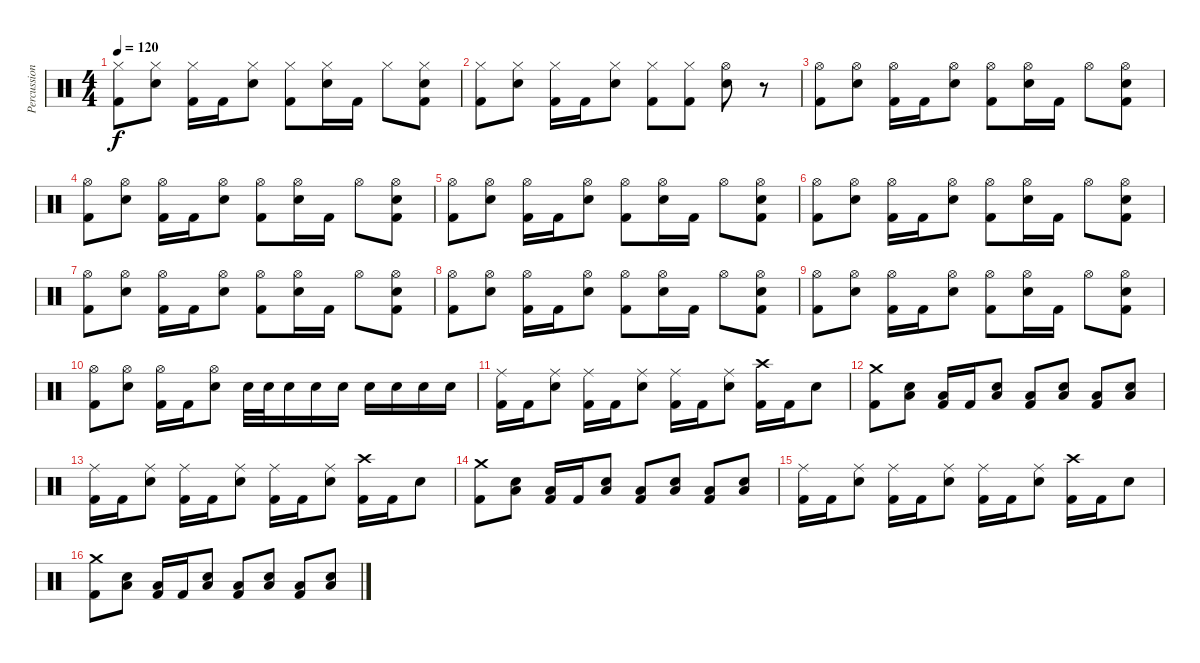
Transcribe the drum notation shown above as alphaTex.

\track ("Percussion" "Percussion") {instrument percussion}
\staff {score}
\articulation defaults
\ts (4 4)
\tempo 120
\clef neutral
\ks c
("Hi-Hat (closed)" "Kick (hit) 2").8{dy f} ("Hi-Hat (closed)" "Electric Snare (hit)").8 ("Hi-Hat (closed)" "Kick (hit) 2").16 "Kick (hit) 2".16 ("Hi-Hat (closed)" "Electric Snare (hit)").8 ("Hi-Hat (closed)" "Kick (hit) 2").8 ("Hi-Hat (closed)" "Electric Snare (hit)").16 "Kick (hit) 2".16 "Hi-Hat (closed)".8 ("Hi-Hat (closed)" "Electric Snare (hit)" "Kick (hit) 2").8 |
("Hi-Hat (closed)" "Kick (hit) 2").8 ("Hi-Hat (closed)" "Electric Snare (hit)").8 ("Hi-Hat (closed)" "Kick (hit) 2").16 "Kick (hit) 2".16 ("Hi-Hat (closed)" "Electric Snare (hit)").8 ("Hi-Hat (closed)" "Kick (hit) 2").8 ("Hi-Hat (closed)" "Kick (hit) 2").8 ("Hi-Hat (open)" "Electric Snare (hit)").8 r.8 |
("Hi-Hat (open)" "Kick (hit) 2").8 ("Hi-Hat (open)" "Electric Snare (hit)").8 ("Hi-Hat (open)" "Kick (hit) 2").16 "Kick (hit) 2".16 ("Hi-Hat (open)" "Electric Snare (hit)").8 ("Hi-Hat (open)" "Kick (hit) 2").8 ("Hi-Hat (open)" "Electric Snare (hit)").16 "Kick (hit) 2".16 "Hi-Hat (open)".8 ("Hi-Hat (open)" "Electric Snare (hit)" "Kick (hit) 2").8 |
("Hi-Hat (open)" "Kick (hit) 2").8 ("Hi-Hat (open)" "Electric Snare (hit)").8 ("Hi-Hat (open)" "Kick (hit) 2").16 "Kick (hit) 2".16 ("Hi-Hat (open)" "Electric Snare (hit)").8 ("Hi-Hat (open)" "Kick (hit) 2").8 ("Hi-Hat (open)" "Electric Snare (hit)").16 "Kick (hit) 2".16 "Hi-Hat (open)".8 ("Hi-Hat (open)" "Electric Snare (hit)" "Kick (hit) 2").8 |
("Hi-Hat (open)" "Kick (hit) 2").8 ("Hi-Hat (open)" "Electric Snare (hit)").8 ("Hi-Hat (open)" "Kick (hit) 2").16 "Kick (hit) 2".16 ("Hi-Hat (open)" "Electric Snare (hit)").8 ("Hi-Hat (open)" "Kick (hit) 2").8 ("Hi-Hat (open)" "Electric Snare (hit)").16 "Kick (hit) 2".16 "Hi-Hat (open)".8 ("Hi-Hat (open)" "Electric Snare (hit)" "Kick (hit) 2").8 |
("Hi-Hat (open)" "Kick (hit) 2").8 ("Hi-Hat (open)" "Electric Snare (hit)").8 ("Hi-Hat (open)" "Kick (hit) 2").16 "Kick (hit) 2".16 ("Hi-Hat (open)" "Electric Snare (hit)").8 ("Hi-Hat (open)" "Kick (hit) 2").8 ("Hi-Hat (open)" "Electric Snare (hit)").16 "Kick (hit) 2".16 "Hi-Hat (open)".8 ("Hi-Hat (open)" "Electric Snare (hit)" "Kick (hit) 2").8 |
("Hi-Hat (open)" "Kick (hit) 2").8 ("Hi-Hat (open)" "Electric Snare (hit)").8 ("Hi-Hat (open)" "Kick (hit) 2").16 "Kick (hit) 2".16 ("Hi-Hat (open)" "Electric Snare (hit)").8 ("Hi-Hat (open)" "Kick (hit) 2").8 ("Hi-Hat (open)" "Electric Snare (hit)").16 "Kick (hit) 2".16 "Hi-Hat (open)".8 ("Hi-Hat (open)" "Electric Snare (hit)" "Kick (hit) 2").8 |
("Hi-Hat (open)" "Kick (hit) 2").8 ("Hi-Hat (open)" "Electric Snare (hit)").8 ("Hi-Hat (open)" "Kick (hit) 2").16 "Kick (hit) 2".16 ("Hi-Hat (open)" "Electric Snare (hit)").8 ("Hi-Hat (open)" "Kick (hit) 2").8 ("Hi-Hat (open)" "Electric Snare (hit)").16 "Kick (hit) 2".16 "Hi-Hat (open)".8 ("Hi-Hat (open)" "Electric Snare (hit)" "Kick (hit) 2").8 |
("Hi-Hat (open)" "Kick (hit) 2").8 ("Hi-Hat (open)" "Electric Snare (hit)").8 ("Hi-Hat (open)" "Kick (hit) 2").16 "Kick (hit) 2".16 ("Hi-Hat (open)" "Electric Snare (hit)").8 ("Hi-Hat (open)" "Kick (hit) 2").8 ("Hi-Hat (open)" "Electric Snare (hit)").16 "Kick (hit) 2".16 "Hi-Hat (open)".8 ("Hi-Hat (open)" "Electric Snare (hit)" "Kick (hit) 2").8 |
("Hi-Hat (open)" "Kick (hit) 2").8 ("Hi-Hat (open)" "Electric Snare (hit)").8 ("Hi-Hat (open)" "Kick (hit) 2").16 "Kick (hit) 2".16 ("Hi-Hat (open)" "Electric Snare (hit)").8 "Electric Snare (hit)".32 "Electric Snare (hit)".32 "Electric Snare (hit)".16 "Electric Snare (hit)".16 "Electric Snare (hit)".16 "Electric Snare (hit)".16 "Electric Snare (hit)".16 "Electric Snare (hit)".16 "Electric Snare (hit)".16 |
("Ride (middle)" "Kick (hit) 2").16 "Kick (hit) 2".16 ("Ride (middle)" "Electric Snare (hit)").8 ("Ride (middle)" "Kick (hit) 2").16 "Kick (hit) 2".16 ("Ride (middle)" "Electric Snare (hit)").8 ("Ride (middle)" "Kick (hit) 2").16 "Kick (hit) 2".16 ("Ride (middle)" "Electric Snare (hit)").8 ("Crash high (hit)" "Kick (hit) 2").16 "Kick (hit) 2".16 "Electric Snare (hit)".8 |
("Crash medium (hit)" "Kick (hit) 2").8 ("Low Tom (hit)" "Electric Snare (hit)").8 ("Low Tom (hit)" "Kick (hit) 2").16 "Kick (hit) 2".16 ("Low Tom (hit)" "Electric Snare (hit)").8 ("Low Tom (hit)" "Kick (hit) 2").8 ("Low Tom (hit)" "Electric Snare (hit)").8 ("Low Tom (hit)" "Kick (hit) 2").8 ("Low Tom (hit)" "Electric Snare (hit)").8 |
("Ride (middle)" "Kick (hit) 2").16 "Kick (hit) 2".16 ("Ride (middle)" "Electric Snare (hit)").8 ("Ride (middle)" "Kick (hit) 2").16 "Kick (hit) 2".16 ("Ride (middle)" "Electric Snare (hit)").8 ("Ride (middle)" "Kick (hit) 2").16 "Kick (hit) 2".16 ("Ride (middle)" "Electric Snare (hit)").8 ("Crash high (hit)" "Kick (hit) 2").16 "Kick (hit) 2".16 "Electric Snare (hit)".8 |
("Crash medium (hit)" "Kick (hit) 2").8 ("Low Tom (hit)" "Electric Snare (hit)").8 ("Low Tom (hit)" "Kick (hit) 2").16 "Kick (hit) 2".16 ("Low Tom (hit)" "Electric Snare (hit)").8 ("Low Tom (hit)" "Kick (hit) 2").8 ("Low Tom (hit)" "Electric Snare (hit)").8 ("Low Tom (hit)" "Kick (hit) 2").8 ("Low Tom (hit)" "Electric Snare (hit)").8 |
("Ride (middle)" "Kick (hit) 2").16 "Kick (hit) 2".16 ("Ride (middle)" "Electric Snare (hit)").8 ("Ride (middle)" "Kick (hit) 2").16 "Kick (hit) 2".16 ("Ride (middle)" "Electric Snare (hit)").8 ("Ride (middle)" "Kick (hit) 2").16 "Kick (hit) 2".16 ("Ride (middle)" "Electric Snare (hit)").8 ("Crash high (hit)" "Kick (hit) 2").16 "Kick (hit) 2".16 "Electric Snare (hit)".8 |
("Crash medium (hit)" "Kick (hit) 2").8 ("Low Tom (hit)" "Electric Snare (hit)").8 ("Low Tom (hit)" "Kick (hit) 2").16 "Kick (hit) 2".16 ("Low Tom (hit)" "Electric Snare (hit)").8 ("Low Tom (hit)" "Kick (hit) 2").8 ("Low Tom (hit)" "Electric Snare (hit)").8 ("Low Tom (hit)" "Kick (hit) 2").8 ("Low Tom (hit)" "Electric Snare (hit)").8
